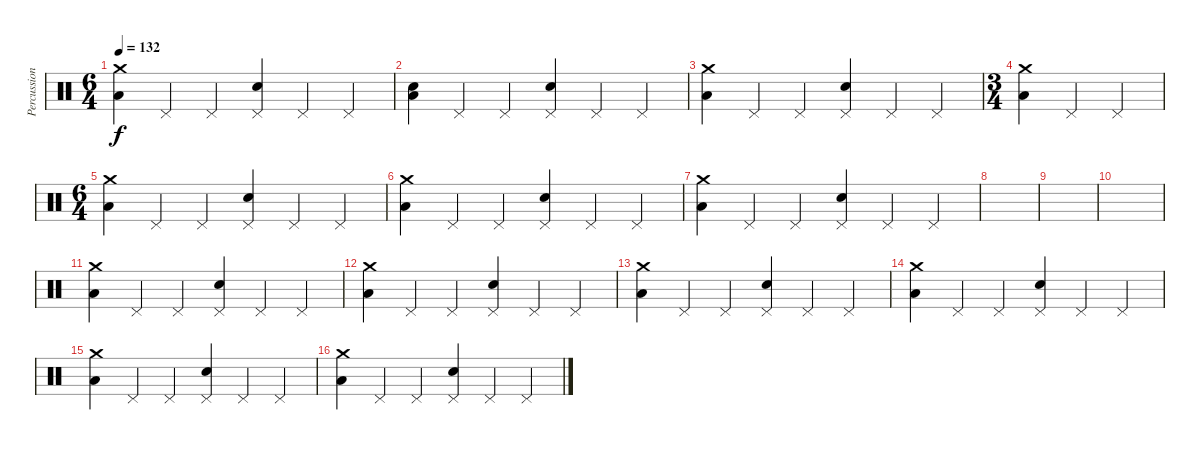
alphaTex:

\track ("Percussion" "Percussion") {instrument percussion}
\staff {score}
\articulation defaults
\ts (6 4)
\tempo 132
\clef neutral
\ks c
("Crash medium (hit)" "Low Floor Tom (hit)").4{dy f} "Pedal Hi-Hat (hit)".4 "Pedal Hi-Hat (hit)".4 ("Pedal Hi-Hat (hit)" "Snare (hit) 2").4 "Pedal Hi-Hat (hit)".4 "Pedal Hi-Hat (hit)".4 |
("Snare (hit) 2" "Low Floor Tom (hit)").4 "Pedal Hi-Hat (hit)".4 "Pedal Hi-Hat (hit)".4 ("Pedal Hi-Hat (hit)" "Snare (hit) 2").4 "Pedal Hi-Hat (hit)".4 "Pedal Hi-Hat (hit)".4 |
("Crash medium (hit)" "Low Floor Tom (hit)").4 "Pedal Hi-Hat (hit)".4 "Pedal Hi-Hat (hit)".4 ("Pedal Hi-Hat (hit)" "Snare (hit) 2").4 "Pedal Hi-Hat (hit)".4 "Pedal Hi-Hat (hit)".4 |
\ts (3 4)
("Crash medium (hit)" "Low Floor Tom (hit)").4 "Pedal Hi-Hat (hit)".4 "Pedal Hi-Hat (hit)".4 |
\ts (6 4)
("Crash medium (hit)" "Low Floor Tom (hit)").4 "Pedal Hi-Hat (hit)".4 "Pedal Hi-Hat (hit)".4 ("Pedal Hi-Hat (hit)" "Snare (hit) 2").4 "Pedal Hi-Hat (hit)".4 "Pedal Hi-Hat (hit)".4 |
("Crash medium (hit)" "Low Floor Tom (hit)").4 "Pedal Hi-Hat (hit)".4 "Pedal Hi-Hat (hit)".4 ("Pedal Hi-Hat (hit)" "Snare (hit) 2").4 "Pedal Hi-Hat (hit)".4 "Pedal Hi-Hat (hit)".4 |
("Crash medium (hit)" "Low Floor Tom (hit)").4 "Pedal Hi-Hat (hit)".4 "Pedal Hi-Hat (hit)".4 ("Pedal Hi-Hat (hit)" "Snare (hit) 2").4 "Pedal Hi-Hat (hit)".4 "Pedal Hi-Hat (hit)".4 |
|
|
|
("Crash medium (hit)" "Low Floor Tom (hit)").4 "Pedal Hi-Hat (hit)".4 "Pedal Hi-Hat (hit)".4 ("Pedal Hi-Hat (hit)" "Snare (hit) 2").4 "Pedal Hi-Hat (hit)".4 "Pedal Hi-Hat (hit)".4 |
("Crash medium (hit)" "Low Floor Tom (hit)").4 "Pedal Hi-Hat (hit)".4 "Pedal Hi-Hat (hit)".4 ("Pedal Hi-Hat (hit)" "Snare (hit) 2").4 "Pedal Hi-Hat (hit)".4 "Pedal Hi-Hat (hit)".4 |
("Crash medium (hit)" "Low Floor Tom (hit)").4 "Pedal Hi-Hat (hit)".4 "Pedal Hi-Hat (hit)".4 ("Pedal Hi-Hat (hit)" "Snare (hit) 2").4 "Pedal Hi-Hat (hit)".4 "Pedal Hi-Hat (hit)".4 |
("Crash medium (hit)" "Low Floor Tom (hit)").4 "Pedal Hi-Hat (hit)".4 "Pedal Hi-Hat (hit)".4 ("Pedal Hi-Hat (hit)" "Snare (hit) 2").4 "Pedal Hi-Hat (hit)".4 "Pedal Hi-Hat (hit)".4 |
("Crash medium (hit)" "Low Floor Tom (hit)").4 "Pedal Hi-Hat (hit)".4 "Pedal Hi-Hat (hit)".4 ("Pedal Hi-Hat (hit)" "Snare (hit) 2").4 "Pedal Hi-Hat (hit)".4 "Pedal Hi-Hat (hit)".4 |
("Crash medium (hit)" "Low Floor Tom (hit)").4 "Pedal Hi-Hat (hit)".4 "Pedal Hi-Hat (hit)".4 ("Pedal Hi-Hat (hit)" "Snare (hit) 2").4 "Pedal Hi-Hat (hit)".4 "Pedal Hi-Hat (hit)".4
